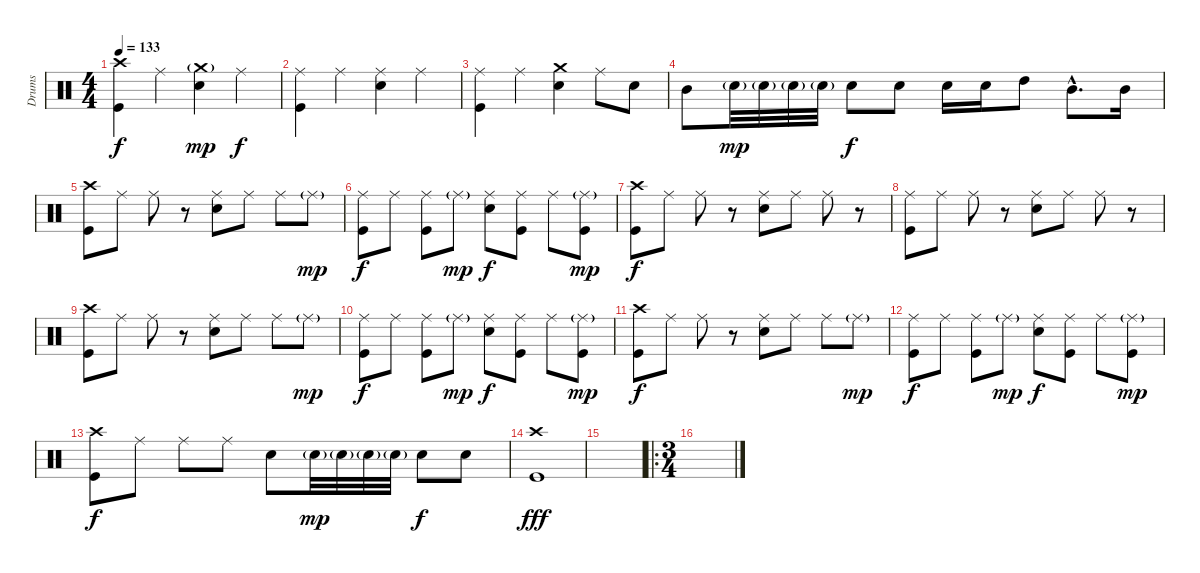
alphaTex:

\track ("Drums" "Drums") {instrument percussion}
\staff {score}
\articulation defaults
\ts (4 4)
\tempo 133
\clef neutral
\ks c
("Crash high (hit)" "Kick (hit)").4{dy f} "Ride (middle)".4 ("Crash medium (hit)"{g} "Snare (hit) 2").4{dy mp} "Ride (middle)".4{dy f} |
("Ride (middle)" "Kick (hit)").4 "Ride (middle)".4 ("Ride (middle)" "Snare (hit) 2").4 "Ride (middle)".4 |
("Ride (middle)" "Kick (hit)").4 "Ride (middle)".4 ("Crash medium (hit)" "Snare (hit) 2").4 "Ride (middle)".8 "Snare (hit) 2".8 |
"Mid Tom (hit)".8 "Snare (hit) 2"{g}.32{dy mp} "Snare (hit) 2"{g}.32 "Snare (hit) 2"{g}.32 "Snare (hit) 2"{g}.32 "Snare (hit) 2".8{dy f} "Snare (hit) 2".8 "Snare (hit) 2".16 "Snare (hit) 2".16 "High Tom (hit)".8 "Mid Tom (hit)"{hac}.8{d} "Mid Tom (hit)".16 |
("Crash high (hit)" "Kick (hit)").8 "Ride (middle)".8 "Ride (middle)".8 r.8 ("Ride (middle)" "Snare (hit) 2").8 "Ride (middle)".8 "Ride (middle)".8 "Ride (middle)"{g}.8{dy mp} |
("Ride (middle)" "Kick (hit)").8{dy f} "Ride (middle)".8 ("Ride (middle)" "Kick (hit)").8 "Ride (middle)"{g}.8{dy mp} ("Ride (middle)" "Snare (hit) 2").8{dy f} ("Ride (middle)" "Kick (hit)").8 "Ride (middle)".8 ("Ride (middle)"{g} "Kick (hit)").8{dy mp} |
("Crash high (hit)" "Kick (hit)").8{dy f} "Ride (middle)".8 "Ride (middle)".8 r.8 ("Ride (middle)" "Snare (hit) 2").8 "Ride (middle)".8 "Ride (middle)".8 r.8 |
("Ride (middle)" "Kick (hit)").8 "Ride (middle)".8 "Ride (middle)".8 r.8 ("Ride (middle)" "Snare (hit) 2").8 "Ride (middle)".8 "Ride (middle)".8 r.8 |
("Crash high (hit)" "Kick (hit)").8 "Ride (middle)".8 "Ride (middle)".8 r.8 ("Ride (middle)" "Snare (hit) 2").8 "Ride (middle)".8 "Ride (middle)".8 "Ride (middle)"{g}.8{dy mp} |
("Ride (middle)" "Kick (hit)").8{dy f} "Ride (middle)".8 ("Ride (middle)" "Kick (hit)").8 "Ride (middle)"{g}.8{dy mp} ("Ride (middle)" "Snare (hit) 2").8{dy f} ("Ride (middle)" "Kick (hit)").8 "Ride (middle)".8 ("Ride (middle)"{g} "Kick (hit)").8{dy mp} |
("Crash high (hit)" "Kick (hit)").8{dy f} "Ride (middle)".8 "Ride (middle)".8 r.8 ("Ride (middle)" "Snare (hit) 2").8 "Ride (middle)".8 "Ride (middle)".8 "Ride (middle)"{g}.8{dy mp} |
("Ride (middle)" "Kick (hit)").8{dy f} "Ride (middle)".8 ("Ride (middle)" "Kick (hit)").8 "Ride (middle)"{g}.8{dy mp} ("Ride (middle)" "Snare (hit) 2").8{dy f} ("Ride (middle)" "Kick (hit)").8 "Ride (middle)".8 ("Ride (middle)"{g} "Kick (hit)").8{dy mp} |
("Crash high (hit)" "Kick (hit)").8{dy f} "Ride (middle)".8 "Ride (middle)".8 "Ride (middle)".8 "Snare (hit) 2".8 "Snare (hit) 2"{g}.32{dy mp} "Snare (hit) 2"{g}.32 "Snare (hit) 2"{g}.32 "Snare (hit) 2"{g}.32 "Snare (hit) 2".8{dy f} "Snare (hit) 2".8 |
("Crash high (hit)" "Kick (hit)").1{dy fff} |
|
\ro
\ts (3 4)
